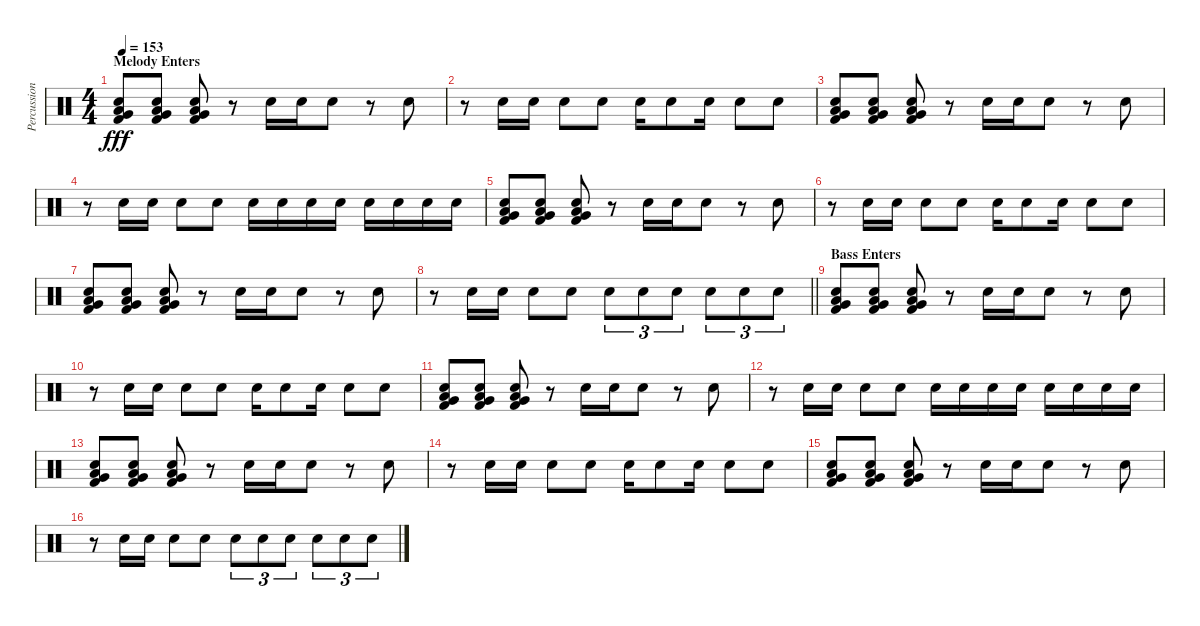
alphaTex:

\track ("Percussion" "Percussion") {instrument percussion}
\staff {score}
\articulation defaults
\ts (4 4)
\section ("" "Melody Enters")
\tempo 153
\clef neutral
\ks c
("Very Low Tom (hit)" "Low Floor Tom (hit)" "Kick (hit) 2" "Snare (hit) 2").8{dy fff} ("Very Low Tom (hit)" "Low Floor Tom (hit)" "Kick (hit) 2" "Snare (hit) 2").8 ("Very Low Tom (hit)" "Low Floor Tom (hit)" "Kick (hit) 2" "Snare (hit) 2").8 r.8 "Snare (hit) 2".16 "Snare (hit) 2".16 "Snare (hit) 2".8 r.8 "Snare (hit) 2".8 |
r.8 "Snare (hit) 2".16 "Snare (hit) 2".16 "Snare (hit) 2".8 "Snare (hit) 2".8 "Snare (hit) 2".16 "Snare (hit) 2".8 "Snare (hit) 2".16 "Snare (hit) 2".8 "Snare (hit) 2".8 |
("Very Low Tom (hit)" "Low Floor Tom (hit)" "Kick (hit) 2" "Snare (hit) 2").8 ("Very Low Tom (hit)" "Low Floor Tom (hit)" "Kick (hit) 2" "Snare (hit) 2").8 ("Very Low Tom (hit)" "Low Floor Tom (hit)" "Kick (hit) 2" "Snare (hit) 2").8 r.8 "Snare (hit) 2".16 "Snare (hit) 2".16 "Snare (hit) 2".8 r.8 "Snare (hit) 2".8 |
r.8 "Snare (hit) 2".16 "Snare (hit) 2".16 "Snare (hit) 2".8 "Snare (hit) 2".8 "Snare (hit) 2".16 "Snare (hit) 2".16 "Snare (hit) 2".16 "Snare (hit) 2".16 "Snare (hit) 2".16 "Snare (hit) 2".16 "Snare (hit) 2".16 "Snare (hit) 2".16 |
("Very Low Tom (hit)" "Low Floor Tom (hit)" "Kick (hit) 2" "Snare (hit) 2").8 ("Very Low Tom (hit)" "Low Floor Tom (hit)" "Kick (hit) 2" "Snare (hit) 2").8 ("Very Low Tom (hit)" "Low Floor Tom (hit)" "Kick (hit) 2" "Snare (hit) 2").8 r.8 "Snare (hit) 2".16 "Snare (hit) 2".16 "Snare (hit) 2".8 r.8 "Snare (hit) 2".8 |
r.8 "Snare (hit) 2".16 "Snare (hit) 2".16 "Snare (hit) 2".8 "Snare (hit) 2".8 "Snare (hit) 2".16 "Snare (hit) 2".8 "Snare (hit) 2".16 "Snare (hit) 2".8 "Snare (hit) 2".8 |
("Very Low Tom (hit)" "Low Floor Tom (hit)" "Kick (hit) 2" "Snare (hit) 2").8 ("Very Low Tom (hit)" "Low Floor Tom (hit)" "Kick (hit) 2" "Snare (hit) 2").8 ("Very Low Tom (hit)" "Low Floor Tom (hit)" "Kick (hit) 2" "Snare (hit) 2").8 r.8 "Snare (hit) 2".16 "Snare (hit) 2".16 "Snare (hit) 2".8 r.8 "Snare (hit) 2".8 |
\barLineRight lightlight
r.8 "Snare (hit) 2".16 "Snare (hit) 2".16 "Snare (hit) 2".8 "Snare (hit) 2".8 "Snare (hit) 2".8{tu (3 2)} "Snare (hit) 2".8{tu (3 2)} "Snare (hit) 2".8{tu (3 2)} "Snare (hit) 2".8{tu (3 2)} "Snare (hit) 2".8{tu (3 2)} "Snare (hit) 2".8{tu (3 2)} |
\section ("" "Bass Enters")
("Very Low Tom (hit)" "Low Floor Tom (hit)" "Kick (hit) 2" "Snare (hit) 2").8 ("Very Low Tom (hit)" "Low Floor Tom (hit)" "Kick (hit) 2" "Snare (hit) 2").8 ("Very Low Tom (hit)" "Low Floor Tom (hit)" "Kick (hit) 2" "Snare (hit) 2").8 r.8 "Snare (hit) 2".16 "Snare (hit) 2".16 "Snare (hit) 2".8 r.8 "Snare (hit) 2".8 |
r.8 "Snare (hit) 2".16 "Snare (hit) 2".16 "Snare (hit) 2".8 "Snare (hit) 2".8 "Snare (hit) 2".16 "Snare (hit) 2".8 "Snare (hit) 2".16 "Snare (hit) 2".8 "Snare (hit) 2".8 |
("Very Low Tom (hit)" "Low Floor Tom (hit)" "Kick (hit) 2" "Snare (hit) 2").8 ("Very Low Tom (hit)" "Low Floor Tom (hit)" "Kick (hit) 2" "Snare (hit) 2").8 ("Very Low Tom (hit)" "Low Floor Tom (hit)" "Kick (hit) 2" "Snare (hit) 2").8 r.8 "Snare (hit) 2".16 "Snare (hit) 2".16 "Snare (hit) 2".8 r.8 "Snare (hit) 2".8 |
r.8 "Snare (hit) 2".16 "Snare (hit) 2".16 "Snare (hit) 2".8 "Snare (hit) 2".8 "Snare (hit) 2".16 "Snare (hit) 2".16 "Snare (hit) 2".16 "Snare (hit) 2".16 "Snare (hit) 2".16 "Snare (hit) 2".16 "Snare (hit) 2".16 "Snare (hit) 2".16 |
("Very Low Tom (hit)" "Low Floor Tom (hit)" "Kick (hit) 2" "Snare (hit) 2").8 ("Very Low Tom (hit)" "Low Floor Tom (hit)" "Kick (hit) 2" "Snare (hit) 2").8 ("Very Low Tom (hit)" "Low Floor Tom (hit)" "Kick (hit) 2" "Snare (hit) 2").8 r.8 "Snare (hit) 2".16 "Snare (hit) 2".16 "Snare (hit) 2".8 r.8 "Snare (hit) 2".8 |
r.8 "Snare (hit) 2".16 "Snare (hit) 2".16 "Snare (hit) 2".8 "Snare (hit) 2".8 "Snare (hit) 2".16 "Snare (hit) 2".8 "Snare (hit) 2".16 "Snare (hit) 2".8 "Snare (hit) 2".8 |
("Very Low Tom (hit)" "Low Floor Tom (hit)" "Kick (hit) 2" "Snare (hit) 2").8 ("Very Low Tom (hit)" "Low Floor Tom (hit)" "Kick (hit) 2" "Snare (hit) 2").8 ("Very Low Tom (hit)" "Low Floor Tom (hit)" "Kick (hit) 2" "Snare (hit) 2").8 r.8 "Snare (hit) 2".16 "Snare (hit) 2".16 "Snare (hit) 2".8 r.8 "Snare (hit) 2".8 |
r.8 "Snare (hit) 2".16 "Snare (hit) 2".16 "Snare (hit) 2".8 "Snare (hit) 2".8 "Snare (hit) 2".8{tu (3 2)} "Snare (hit) 2".8{tu (3 2)} "Snare (hit) 2".8{tu (3 2)} "Snare (hit) 2".8{tu (3 2)} "Snare (hit) 2".8{tu (3 2)} "Snare (hit) 2".8{tu (3 2)}
